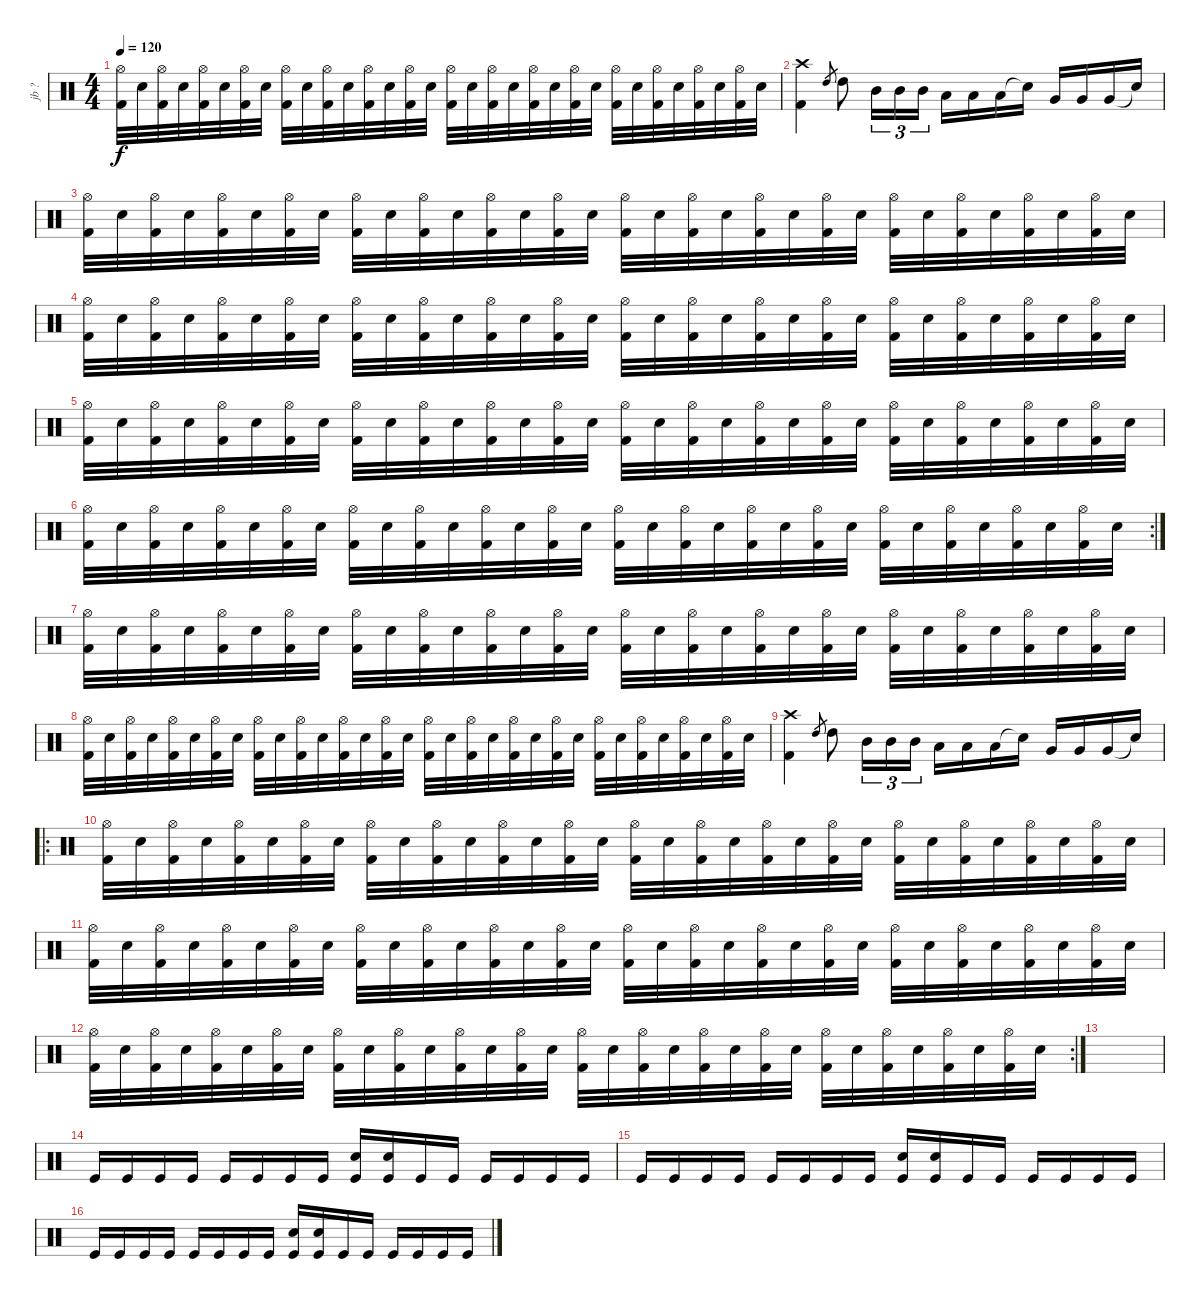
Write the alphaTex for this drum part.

\track ("jb ?" "jb ?") {instrument percussion}
\staff {score}
\articulation defaults
\ts (4 4)
\tempo 120
\clef neutral
\ks c
("Kick (hit) 2" "Hi-Hat (open)").32{dy f} "Electric Snare (hit)".32 ("Kick (hit) 2" "Hi-Hat (open)").32 "Electric Snare (hit)".32 ("Kick (hit) 2" "Hi-Hat (open)").32 "Electric Snare (hit)".32 ("Kick (hit) 2" "Hi-Hat (open)").32 "Electric Snare (hit)".32 ("Kick (hit) 2" "Hi-Hat (open)").32 "Electric Snare (hit)".32 ("Kick (hit) 2" "Hi-Hat (open)").32 "Electric Snare (hit)".32 ("Kick (hit) 2" "Hi-Hat (open)").32 "Electric Snare (hit)".32 ("Kick (hit) 2" "Hi-Hat (open)").32 "Electric Snare (hit)".32 ("Kick (hit) 2" "Hi-Hat (open)").32 "Electric Snare (hit)".32 ("Kick (hit) 2" "Hi-Hat (open)").32 "Electric Snare (hit)".32 ("Kick (hit) 2" "Hi-Hat (open)").32 "Electric Snare (hit)".32 ("Kick (hit) 2" "Hi-Hat (open)").32 "Electric Snare (hit)".32 ("Kick (hit) 2" "Hi-Hat (open)").32 "Electric Snare (hit)".32 ("Kick (hit) 2" "Hi-Hat (open)").32 "Electric Snare (hit)".32 ("Kick (hit) 2" "Hi-Hat (open)").32 "Electric Snare (hit)".32 ("Kick (hit) 2" "Hi-Hat (open)").32 "Electric Snare (hit)".32 |
("Crash high (hit)" "Kick (hit) 2").4 "High Tom (hit)".8{gr} "High Tom (hit)".8 "Mid Tom (hit)".16{tu (3 2)} "Mid Tom (hit)".16{tu (3 2)} "Mid Tom (hit)".16{tu (3 2)} "Low Tom (hit)".16 "Low Tom (hit)".16 "Low Tom (hit)".16 "Snare (hit)"{t}.16 "Very Low Tom (hit)".16 "Very Low Tom (hit)".16 "Very Low Tom (hit)".16 "Snare (hit)"{t}.16 |
("Kick (hit) 2" "Hi-Hat (open)").32 "Electric Snare (hit)".32 ("Kick (hit) 2" "Hi-Hat (open)").32 "Electric Snare (hit)".32 ("Kick (hit) 2" "Hi-Hat (open)").32 "Electric Snare (hit)".32 ("Kick (hit) 2" "Hi-Hat (open)").32 "Electric Snare (hit)".32 ("Kick (hit) 2" "Hi-Hat (open)").32 "Electric Snare (hit)".32 ("Kick (hit) 2" "Hi-Hat (open)").32 "Electric Snare (hit)".32 ("Kick (hit) 2" "Hi-Hat (open)").32 "Electric Snare (hit)".32 ("Kick (hit) 2" "Hi-Hat (open)").32 "Electric Snare (hit)".32 ("Kick (hit) 2" "Hi-Hat (open)").32 "Electric Snare (hit)".32 ("Kick (hit) 2" "Hi-Hat (open)").32 "Electric Snare (hit)".32 ("Kick (hit) 2" "Hi-Hat (open)").32 "Electric Snare (hit)".32 ("Kick (hit) 2" "Hi-Hat (open)").32 "Electric Snare (hit)".32 ("Kick (hit) 2" "Hi-Hat (open)").32 "Electric Snare (hit)".32 ("Kick (hit) 2" "Hi-Hat (open)").32 "Electric Snare (hit)".32 ("Kick (hit) 2" "Hi-Hat (open)").32 "Electric Snare (hit)".32 ("Kick (hit) 2" "Hi-Hat (open)").32 "Electric Snare (hit)".32 |
("Kick (hit) 2" "Hi-Hat (open)").32 "Electric Snare (hit)".32 ("Kick (hit) 2" "Hi-Hat (open)").32 "Electric Snare (hit)".32 ("Kick (hit) 2" "Hi-Hat (open)").32 "Electric Snare (hit)".32 ("Kick (hit) 2" "Hi-Hat (open)").32 "Electric Snare (hit)".32 ("Kick (hit) 2" "Hi-Hat (open)").32 "Electric Snare (hit)".32 ("Kick (hit) 2" "Hi-Hat (open)").32 "Electric Snare (hit)".32 ("Kick (hit) 2" "Hi-Hat (open)").32 "Electric Snare (hit)".32 ("Kick (hit) 2" "Hi-Hat (open)").32 "Electric Snare (hit)".32 ("Kick (hit) 2" "Hi-Hat (open)").32 "Electric Snare (hit)".32 ("Kick (hit) 2" "Hi-Hat (open)").32 "Electric Snare (hit)".32 ("Kick (hit) 2" "Hi-Hat (open)").32 "Electric Snare (hit)".32 ("Kick (hit) 2" "Hi-Hat (open)").32 "Electric Snare (hit)".32 ("Kick (hit) 2" "Hi-Hat (open)").32 "Electric Snare (hit)".32 ("Kick (hit) 2" "Hi-Hat (open)").32 "Electric Snare (hit)".32 ("Kick (hit) 2" "Hi-Hat (open)").32 "Electric Snare (hit)".32 ("Kick (hit) 2" "Hi-Hat (open)").32 "Electric Snare (hit)".32 |
("Kick (hit) 2" "Hi-Hat (open)").32 "Electric Snare (hit)".32 ("Kick (hit) 2" "Hi-Hat (open)").32 "Electric Snare (hit)".32 ("Kick (hit) 2" "Hi-Hat (open)").32 "Electric Snare (hit)".32 ("Kick (hit) 2" "Hi-Hat (open)").32 "Electric Snare (hit)".32 ("Kick (hit) 2" "Hi-Hat (open)").32 "Electric Snare (hit)".32 ("Kick (hit) 2" "Hi-Hat (open)").32 "Electric Snare (hit)".32 ("Kick (hit) 2" "Hi-Hat (open)").32 "Electric Snare (hit)".32 ("Kick (hit) 2" "Hi-Hat (open)").32 "Electric Snare (hit)".32 ("Kick (hit) 2" "Hi-Hat (open)").32 "Electric Snare (hit)".32 ("Kick (hit) 2" "Hi-Hat (open)").32 "Electric Snare (hit)".32 ("Kick (hit) 2" "Hi-Hat (open)").32 "Electric Snare (hit)".32 ("Kick (hit) 2" "Hi-Hat (open)").32 "Electric Snare (hit)".32 ("Kick (hit) 2" "Hi-Hat (open)").32 "Electric Snare (hit)".32 ("Kick (hit) 2" "Hi-Hat (open)").32 "Electric Snare (hit)".32 ("Kick (hit) 2" "Hi-Hat (open)").32 "Electric Snare (hit)".32 ("Kick (hit) 2" "Hi-Hat (open)").32 "Electric Snare (hit)".32 |
\rc 2
("Kick (hit) 2" "Hi-Hat (open)").32 "Electric Snare (hit)".32 ("Kick (hit) 2" "Hi-Hat (open)").32 "Electric Snare (hit)".32 ("Kick (hit) 2" "Hi-Hat (open)").32 "Electric Snare (hit)".32 ("Kick (hit) 2" "Hi-Hat (open)").32 "Electric Snare (hit)".32 ("Kick (hit) 2" "Hi-Hat (open)").32 "Electric Snare (hit)".32 ("Kick (hit) 2" "Hi-Hat (open)").32 "Electric Snare (hit)".32 ("Kick (hit) 2" "Hi-Hat (open)").32 "Electric Snare (hit)".32 ("Kick (hit) 2" "Hi-Hat (open)").32 "Electric Snare (hit)".32 ("Kick (hit) 2" "Hi-Hat (open)").32 "Electric Snare (hit)".32 ("Kick (hit) 2" "Hi-Hat (open)").32 "Electric Snare (hit)".32 ("Kick (hit) 2" "Hi-Hat (open)").32 "Electric Snare (hit)".32 ("Kick (hit) 2" "Hi-Hat (open)").32 "Electric Snare (hit)".32 ("Kick (hit) 2" "Hi-Hat (open)").32 "Electric Snare (hit)".32 ("Kick (hit) 2" "Hi-Hat (open)").32 "Electric Snare (hit)".32 ("Kick (hit) 2" "Hi-Hat (open)").32 "Electric Snare (hit)".32 ("Kick (hit) 2" "Hi-Hat (open)").32 "Electric Snare (hit)".32 |
("Kick (hit) 2" "Hi-Hat (open)").32 "Electric Snare (hit)".32 ("Kick (hit) 2" "Hi-Hat (open)").32 "Electric Snare (hit)".32 ("Kick (hit) 2" "Hi-Hat (open)").32 "Electric Snare (hit)".32 ("Kick (hit) 2" "Hi-Hat (open)").32 "Electric Snare (hit)".32 ("Kick (hit) 2" "Hi-Hat (open)").32 "Electric Snare (hit)".32 ("Kick (hit) 2" "Hi-Hat (open)").32 "Electric Snare (hit)".32 ("Kick (hit) 2" "Hi-Hat (open)").32 "Electric Snare (hit)".32 ("Kick (hit) 2" "Hi-Hat (open)").32 "Electric Snare (hit)".32 ("Kick (hit) 2" "Hi-Hat (open)").32 "Electric Snare (hit)".32 ("Kick (hit) 2" "Hi-Hat (open)").32 "Electric Snare (hit)".32 ("Kick (hit) 2" "Hi-Hat (open)").32 "Electric Snare (hit)".32 ("Kick (hit) 2" "Hi-Hat (open)").32 "Electric Snare (hit)".32 ("Kick (hit) 2" "Hi-Hat (open)").32 "Electric Snare (hit)".32 ("Kick (hit) 2" "Hi-Hat (open)").32 "Electric Snare (hit)".32 ("Kick (hit) 2" "Hi-Hat (open)").32 "Electric Snare (hit)".32 ("Kick (hit) 2" "Hi-Hat (open)").32 "Electric Snare (hit)".32 |
("Kick (hit) 2" "Hi-Hat (open)").32 "Electric Snare (hit)".32 ("Kick (hit) 2" "Hi-Hat (open)").32 "Electric Snare (hit)".32 ("Kick (hit) 2" "Hi-Hat (open)").32 "Electric Snare (hit)".32 ("Kick (hit) 2" "Hi-Hat (open)").32 "Electric Snare (hit)".32 ("Kick (hit) 2" "Hi-Hat (open)").32 "Electric Snare (hit)".32 ("Kick (hit) 2" "Hi-Hat (open)").32 "Electric Snare (hit)".32 ("Kick (hit) 2" "Hi-Hat (open)").32 "Electric Snare (hit)".32 ("Kick (hit) 2" "Hi-Hat (open)").32 "Electric Snare (hit)".32 ("Kick (hit) 2" "Hi-Hat (open)").32 "Electric Snare (hit)".32 ("Kick (hit) 2" "Hi-Hat (open)").32 "Electric Snare (hit)".32 ("Kick (hit) 2" "Hi-Hat (open)").32 "Electric Snare (hit)".32 ("Kick (hit) 2" "Hi-Hat (open)").32 "Electric Snare (hit)".32 ("Kick (hit) 2" "Hi-Hat (open)").32 "Electric Snare (hit)".32 ("Kick (hit) 2" "Hi-Hat (open)").32 "Electric Snare (hit)".32 ("Kick (hit) 2" "Hi-Hat (open)").32 "Electric Snare (hit)".32 ("Kick (hit) 2" "Hi-Hat (open)").32 "Electric Snare (hit)".32 |
("Crash high (hit)" "Kick (hit) 2").4 "High Tom (hit)".8{gr} "High Tom (hit)".8 "Mid Tom (hit)".16{tu (3 2)} "Mid Tom (hit)".16{tu (3 2)} "Mid Tom (hit)".16{tu (3 2)} "Low Tom (hit)".16 "Low Tom (hit)".16 "Low Tom (hit)".16 "Snare (hit)"{t}.16 "Very Low Tom (hit)".16 "Very Low Tom (hit)".16 "Very Low Tom (hit)".16 "Snare (hit)"{t}.16 |
\ro
("Kick (hit) 2" "Hi-Hat (open)").32 "Electric Snare (hit)".32 ("Kick (hit) 2" "Hi-Hat (open)").32 "Electric Snare (hit)".32 ("Kick (hit) 2" "Hi-Hat (open)").32 "Electric Snare (hit)".32 ("Kick (hit) 2" "Hi-Hat (open)").32 "Electric Snare (hit)".32 ("Kick (hit) 2" "Hi-Hat (open)").32 "Electric Snare (hit)".32 ("Kick (hit) 2" "Hi-Hat (open)").32 "Electric Snare (hit)".32 ("Kick (hit) 2" "Hi-Hat (open)").32 "Electric Snare (hit)".32 ("Kick (hit) 2" "Hi-Hat (open)").32 "Electric Snare (hit)".32 ("Kick (hit) 2" "Hi-Hat (open)").32 "Electric Snare (hit)".32 ("Kick (hit) 2" "Hi-Hat (open)").32 "Electric Snare (hit)".32 ("Kick (hit) 2" "Hi-Hat (open)").32 "Electric Snare (hit)".32 ("Kick (hit) 2" "Hi-Hat (open)").32 "Electric Snare (hit)".32 ("Kick (hit) 2" "Hi-Hat (open)").32 "Electric Snare (hit)".32 ("Kick (hit) 2" "Hi-Hat (open)").32 "Electric Snare (hit)".32 ("Kick (hit) 2" "Hi-Hat (open)").32 "Electric Snare (hit)".32 ("Kick (hit) 2" "Hi-Hat (open)").32 "Electric Snare (hit)".32 |
("Kick (hit) 2" "Hi-Hat (open)").32 "Electric Snare (hit)".32 ("Kick (hit) 2" "Hi-Hat (open)").32 "Electric Snare (hit)".32 ("Kick (hit) 2" "Hi-Hat (open)").32 "Electric Snare (hit)".32 ("Kick (hit) 2" "Hi-Hat (open)").32 "Electric Snare (hit)".32 ("Kick (hit) 2" "Hi-Hat (open)").32 "Electric Snare (hit)".32 ("Kick (hit) 2" "Hi-Hat (open)").32 "Electric Snare (hit)".32 ("Kick (hit) 2" "Hi-Hat (open)").32 "Electric Snare (hit)".32 ("Kick (hit) 2" "Hi-Hat (open)").32 "Electric Snare (hit)".32 ("Kick (hit) 2" "Hi-Hat (open)").32 "Electric Snare (hit)".32 ("Kick (hit) 2" "Hi-Hat (open)").32 "Electric Snare (hit)".32 ("Kick (hit) 2" "Hi-Hat (open)").32 "Electric Snare (hit)".32 ("Kick (hit) 2" "Hi-Hat (open)").32 "Electric Snare (hit)".32 ("Kick (hit) 2" "Hi-Hat (open)").32 "Electric Snare (hit)".32 ("Kick (hit) 2" "Hi-Hat (open)").32 "Electric Snare (hit)".32 ("Kick (hit) 2" "Hi-Hat (open)").32 "Electric Snare (hit)".32 ("Kick (hit) 2" "Hi-Hat (open)").32 "Electric Snare (hit)".32 |
\rc 2
("Kick (hit) 2" "Hi-Hat (open)").32 "Electric Snare (hit)".32 ("Kick (hit) 2" "Hi-Hat (open)").32 "Electric Snare (hit)".32 ("Kick (hit) 2" "Hi-Hat (open)").32 "Electric Snare (hit)".32 ("Kick (hit) 2" "Hi-Hat (open)").32 "Electric Snare (hit)".32 ("Kick (hit) 2" "Hi-Hat (open)").32 "Electric Snare (hit)".32 ("Kick (hit) 2" "Hi-Hat (open)").32 "Electric Snare (hit)".32 ("Kick (hit) 2" "Hi-Hat (open)").32 "Electric Snare (hit)".32 ("Kick (hit) 2" "Hi-Hat (open)").32 "Electric Snare (hit)".32 ("Kick (hit) 2" "Hi-Hat (open)").32 "Electric Snare (hit)".32 ("Kick (hit) 2" "Hi-Hat (open)").32 "Electric Snare (hit)".32 ("Kick (hit) 2" "Hi-Hat (open)").32 "Electric Snare (hit)".32 ("Kick (hit) 2" "Hi-Hat (open)").32 "Electric Snare (hit)".32 ("Kick (hit) 2" "Hi-Hat (open)").32 "Electric Snare (hit)".32 ("Kick (hit) 2" "Hi-Hat (open)").32 "Electric Snare (hit)".32 ("Kick (hit) 2" "Hi-Hat (open)").32 "Electric Snare (hit)".32 ("Kick (hit) 2" "Hi-Hat (open)").32 "Electric Snare (hit)".32 |
|
"Kick (hit)".16 "Kick (hit)".16 "Kick (hit)".16 "Kick (hit)".16 "Kick (hit)".16 "Kick (hit)".16 "Kick (hit)".16 "Kick (hit)".16 ("Electric Snare (hit)" "Kick (hit)").16 ("Snare (hit) 2" "Kick (hit)").16 "Kick (hit)".16 "Kick (hit)".16 "Kick (hit)".16 "Kick (hit)".16 "Kick (hit)".16 "Kick (hit)".16 |
"Kick (hit)".16 "Kick (hit)".16 "Kick (hit)".16 "Kick (hit)".16 "Kick (hit)".16 "Kick (hit)".16 "Kick (hit)".16 "Kick (hit)".16 ("Electric Snare (hit)" "Kick (hit)").16 ("Snare (hit) 2" "Kick (hit)").16 "Kick (hit)".16 "Kick (hit)".16 "Kick (hit)".16 "Kick (hit)".16 "Kick (hit)".16 "Kick (hit)".16 |
"Kick (hit)".16 "Kick (hit)".16 "Kick (hit)".16 "Kick (hit)".16 "Kick (hit)".16 "Kick (hit)".16 "Kick (hit)".16 "Kick (hit)".16 ("Electric Snare (hit)" "Kick (hit)").16 ("Snare (hit) 2" "Kick (hit)").16 "Kick (hit)".16 "Kick (hit)".16 "Kick (hit)".16 "Kick (hit)".16 "Kick (hit)".16 "Kick (hit)".16
